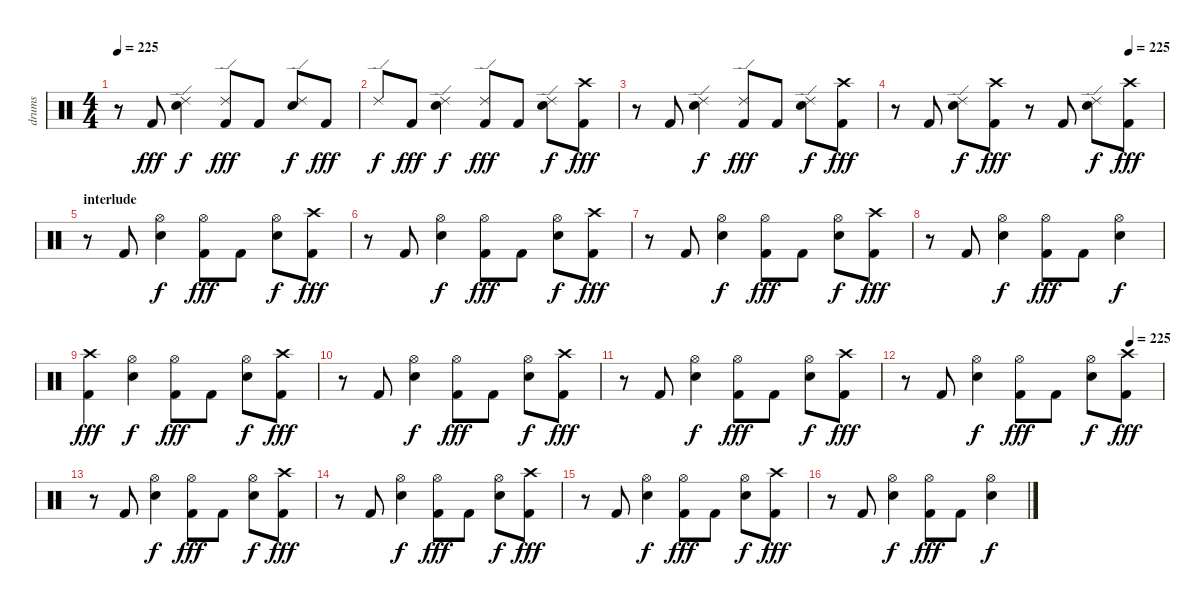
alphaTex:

\track ("drums" "drums") {instrument percussion}
\staff {score}
\articulation defaults
\ts (4 4)
\tempo 225
\clef neutral
\ks c
r.8{dy fff} "Kick (hit) 2".8 ("Ride (edge) 2" "Snare (hit) 2").4{dy f} ("Ride (edge) 2" "Kick (hit) 2").8{dy fff} "Kick (hit) 2".8 ("Ride (edge) 2" "Snare (hit) 2").8{dy f} "Kick (hit) 2".8{dy fff} |
"Ride (edge) 2".8{dy f} "Kick (hit) 2".8{dy fff} ("Ride (edge) 2" "Snare (hit) 2").4{dy f} ("Ride (edge) 2" "Kick (hit) 2").8{dy fff} "Kick (hit) 2".8 ("Ride (edge) 2" "Snare (hit) 2").8{dy f} ("Crash high (hit)" "Kick (hit) 2").8{dy fff} |
r.8 "Kick (hit) 2".8 ("Ride (edge) 2" "Snare (hit) 2").4{dy f} ("Ride (edge) 2" "Kick (hit) 2").8{dy fff} "Kick (hit) 2".8 ("Ride (edge) 2" "Snare (hit) 2").8{dy f} ("Crash high (hit)" "Kick (hit) 2").8{dy fff} |
\tempo (225 0.875)
r.8 "Kick (hit) 2".8 ("Ride (edge) 2" "Snare (hit) 2").8{dy f} ("Crash high (hit)" "Kick (hit) 2").8{dy fff} r.8 "Kick (hit) 2".8 ("Ride (edge) 2" "Snare (hit) 2").8{dy f} ("Crash high (hit)" "Kick (hit) 2").8{dy fff} |
\section ("" "interlude")
r.8 "Kick (hit) 2".8 ("Hi-Hat (open)" "Snare (hit) 2").4{dy f} ("Hi-Hat (open)" "Kick (hit) 2").8{dy fff} "Kick (hit) 2".8 ("Hi-Hat (open)" "Snare (hit) 2").8{dy f} ("Crash high (hit)" "Kick (hit) 2").8{dy fff} |
r.8 "Kick (hit) 2".8 ("Hi-Hat (open)" "Snare (hit) 2").4{dy f} ("Hi-Hat (open)" "Kick (hit) 2").8{dy fff} "Kick (hit) 2".8 ("Hi-Hat (open)" "Snare (hit) 2").8{dy f} ("Crash high (hit)" "Kick (hit) 2").8{dy fff} |
r.8 "Kick (hit) 2".8 ("Hi-Hat (open)" "Snare (hit) 2").4{dy f} ("Hi-Hat (open)" "Kick (hit) 2").8{dy fff} "Kick (hit) 2".8 ("Hi-Hat (open)" "Snare (hit) 2").8{dy f} ("Crash high (hit)" "Kick (hit) 2").8{dy fff} |
r.8 "Kick (hit) 2".8 ("Hi-Hat (open)" "Snare (hit) 2").4{dy f} ("Hi-Hat (open)" "Kick (hit) 2").8{dy fff} "Kick (hit) 2".8 ("Hi-Hat (open)" "Snare (hit) 2").4{dy f} |
("Crash high (hit)" "Kick (hit) 2").4{dy fff} ("Hi-Hat (open)" "Snare (hit) 2").4{dy f} ("Hi-Hat (open)" "Kick (hit) 2").8{dy fff} "Kick (hit) 2".8 ("Hi-Hat (open)" "Snare (hit) 2").8{dy f} ("Crash high (hit)" "Kick (hit) 2").8{dy fff} |
r.8 "Kick (hit) 2".8 ("Hi-Hat (open)" "Snare (hit) 2").4{dy f} ("Hi-Hat (open)" "Kick (hit) 2").8{dy fff} "Kick (hit) 2".8 ("Hi-Hat (open)" "Snare (hit) 2").8{dy f} ("Crash high (hit)" "Kick (hit) 2").8{dy fff} |
r.8 "Kick (hit) 2".8 ("Hi-Hat (open)" "Snare (hit) 2").4{dy f} ("Hi-Hat (open)" "Kick (hit) 2").8{dy fff} "Kick (hit) 2".8 ("Hi-Hat (open)" "Snare (hit) 2").8{dy f} ("Crash high (hit)" "Kick (hit) 2").8{dy fff} |
\tempo (225 0.875)
r.8 "Kick (hit) 2".8 ("Hi-Hat (open)" "Snare (hit) 2").4{dy f} ("Hi-Hat (open)" "Kick (hit) 2").8{dy fff} "Kick (hit) 2".8 ("Hi-Hat (open)" "Snare (hit) 2").8{dy f} ("Crash high (hit)" "Kick (hit) 2").8{dy fff} |
r.8 "Kick (hit) 2".8 ("Hi-Hat (open)" "Snare (hit) 2").4{dy f} ("Hi-Hat (open)" "Kick (hit) 2").8{dy fff} "Kick (hit) 2".8 ("Hi-Hat (open)" "Snare (hit) 2").8{dy f} ("Crash high (hit)" "Kick (hit) 2").8{dy fff} |
r.8 "Kick (hit) 2".8 ("Hi-Hat (open)" "Snare (hit) 2").4{dy f} ("Hi-Hat (open)" "Kick (hit) 2").8{dy fff} "Kick (hit) 2".8 ("Hi-Hat (open)" "Snare (hit) 2").8{dy f} ("Crash high (hit)" "Kick (hit) 2").8{dy fff} |
r.8 "Kick (hit) 2".8 ("Hi-Hat (open)" "Snare (hit) 2").4{dy f} ("Hi-Hat (open)" "Kick (hit) 2").8{dy fff} "Kick (hit) 2".8 ("Hi-Hat (open)" "Snare (hit) 2").8{dy f} ("Crash high (hit)" "Kick (hit) 2").8{dy fff} |
r.8 "Kick (hit) 2".8 ("Hi-Hat (open)" "Snare (hit) 2").4{dy f} ("Hi-Hat (open)" "Kick (hit) 2").8{dy fff} "Kick (hit) 2".8 ("Hi-Hat (open)" "Snare (hit) 2").4{dy f}
